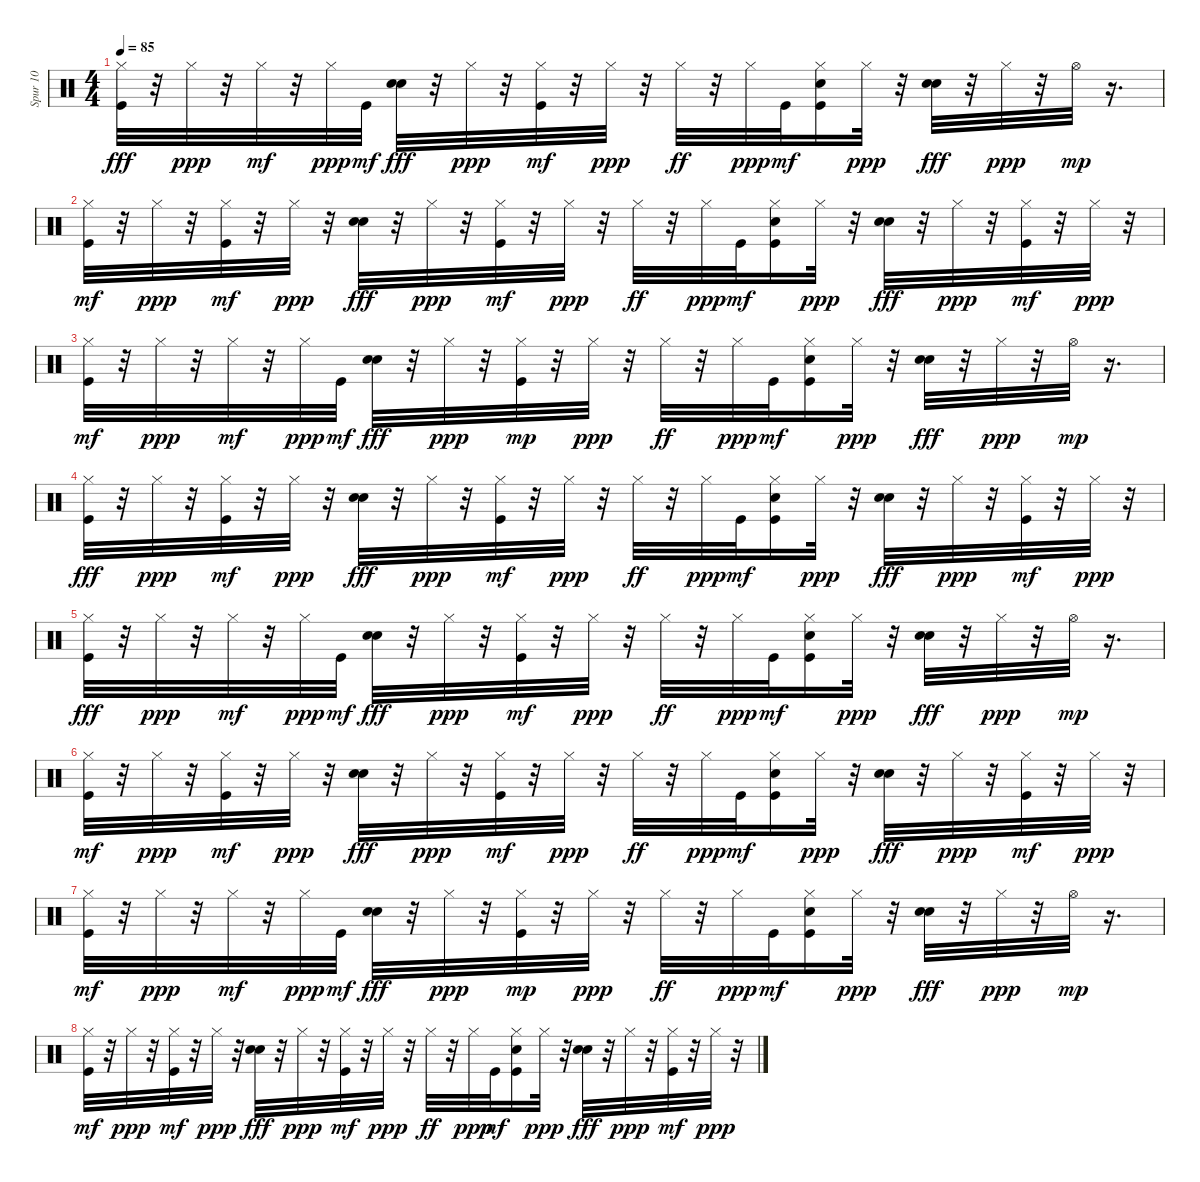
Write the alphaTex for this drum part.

\track ("Spur 10" "Spur 10") {instrument percussion}
\staff {score}
\articulation defaults
\ts (4 4)
\tempo 85
\clef neutral
\ks c
("Kick (hit)" "Hi-Hat (closed)").32{dy fff} r.32 "Hi-Hat (closed)".32{dy ppp} r.32 "Hi-Hat (closed)".32{dy mf} r.32 "Hi-Hat (closed)".32{dy ppp} "Kick (hit)".32{dy mf} ("Electric Snare (hit)" "Hand Clap (hit)").32{dy fff} r.32 "Hi-Hat (closed)".32{dy ppp} r.32 ("Hi-Hat (closed)" "Kick (hit)").32{dy mf} r.32 "Hi-Hat (closed)".32{dy ppp} r.32 "Hi-Hat (closed)".32{dy ff} r.32 "Hi-Hat (closed)".32{dy ppp} "Kick (hit)".32{dy mf} ("Kick (hit)" "Snare (hit)" "Hi-Hat (closed)").16 "Hi-Hat (closed)".32{dy ppp} r.32 ("Hand Clap (hit)" "Electric Snare (hit)").32{dy fff} r.32 "Hi-Hat (closed)".32{dy ppp} r.32 "Hi-Hat (open)".32{dy mp} r.16{d} |
("Hi-Hat (closed)" "Kick (hit)").32{dy mf} r.32 "Hi-Hat (closed)".32{dy ppp} r.32 ("Hi-Hat (closed)" "Kick (hit)").32{dy mf} r.32 "Hi-Hat (closed)".32{dy ppp} r.32 ("Electric Snare (hit)" "Hand Clap (hit)").32{dy fff} r.32 "Hi-Hat (closed)".32{dy ppp} r.32 ("Hi-Hat (closed)" "Kick (hit)").32{dy mf} r.32 "Hi-Hat (closed)".32{dy ppp} r.32 "Hi-Hat (closed)".32{dy ff} r.32 "Hi-Hat (closed)".32{dy ppp} "Kick (hit)".32{dy mf} ("Kick (hit)" "Hi-Hat (closed)" "Snare (hit)").16 "Hi-Hat (closed)".32{dy ppp} r.32 ("Hand Clap (hit)" "Electric Snare (hit)").32{dy fff} r.32 "Hi-Hat (closed)".32{dy ppp} r.32 ("Hi-Hat (closed)" "Kick (hit)").32{dy mf} r.32 "Hi-Hat (closed)".32{dy ppp} r.32 |
("Hi-Hat (closed)" "Kick (hit)").32{dy mf} r.32 "Hi-Hat (closed)".32{dy ppp} r.32 "Hi-Hat (closed)".32{dy mf} r.32 "Hi-Hat (closed)".32{dy ppp} "Kick (hit)".32{dy mf} ("Electric Snare (hit)" "Hand Clap (hit)").32{dy fff} r.32 "Hi-Hat (closed)".32{dy ppp} r.32 ("Kick (hit)" "Hi-Hat (closed)").32{dy mp} r.32 "Hi-Hat (closed)".32{dy ppp} r.32 "Hi-Hat (closed)".32{dy ff} r.32 "Hi-Hat (closed)".32{dy ppp} "Kick (hit)".32{dy mf} ("Kick (hit)" "Snare (hit)" "Hi-Hat (closed)").16 "Hi-Hat (closed)".32{dy ppp} r.32 ("Hand Clap (hit)" "Electric Snare (hit)").32{dy fff} r.32 "Hi-Hat (closed)".32{dy ppp} r.32 "Hi-Hat (open)".32{dy mp} r.16{d} |
("Kick (hit)" "Hi-Hat (closed)").32{dy fff} r.32 "Hi-Hat (closed)".32{dy ppp} r.32 ("Hi-Hat (closed)" "Kick (hit)").32{dy mf} r.32 "Hi-Hat (closed)".32{dy ppp} r.32 ("Electric Snare (hit)" "Hand Clap (hit)").32{dy fff} r.32 "Hi-Hat (closed)".32{dy ppp} r.32 ("Kick (hit)" "Hi-Hat (closed)").32{dy mf} r.32 "Hi-Hat (closed)".32{dy ppp} r.32 "Hi-Hat (closed)".32{dy ff} r.32 "Hi-Hat (closed)".32{dy ppp} "Kick (hit)".32{dy mf} ("Kick (hit)" "Hi-Hat (closed)" "Snare (hit)").16 "Hi-Hat (closed)".32{dy ppp} r.32 ("Hand Clap (hit)" "Electric Snare (hit)").32{dy fff} r.32 "Hi-Hat (closed)".32{dy ppp} r.32 ("Hi-Hat (closed)" "Kick (hit)").32{dy mf} r.32 "Hi-Hat (closed)".32{dy ppp} r.32 |
("Kick (hit)" "Hi-Hat (closed)").32{dy fff} r.32 "Hi-Hat (closed)".32{dy ppp} r.32 "Hi-Hat (closed)".32{dy mf} r.32 "Hi-Hat (closed)".32{dy ppp} "Kick (hit)".32{dy mf} ("Electric Snare (hit)" "Hand Clap (hit)").32{dy fff} r.32 "Hi-Hat (closed)".32{dy ppp} r.32 ("Hi-Hat (closed)" "Kick (hit)").32{dy mf} r.32 "Hi-Hat (closed)".32{dy ppp} r.32 "Hi-Hat (closed)".32{dy ff} r.32 "Hi-Hat (closed)".32{dy ppp} "Kick (hit)".32{dy mf} ("Hi-Hat (closed)" "Kick (hit)" "Snare (hit)").16 "Hi-Hat (closed)".32{dy ppp} r.32 ("Hand Clap (hit)" "Electric Snare (hit)").32{dy fff} r.32 "Hi-Hat (closed)".32{dy ppp} r.32 "Hi-Hat (open)".32{dy mp} r.16{d} |
("Hi-Hat (closed)" "Kick (hit)").32{dy mf} r.32 "Hi-Hat (closed)".32{dy ppp} r.32 ("Kick (hit)" "Hi-Hat (closed)").32{dy mf} r.32 "Hi-Hat (closed)".32{dy ppp} r.32 ("Electric Snare (hit)" "Hand Clap (hit)").32{dy fff} r.32 "Hi-Hat (closed)".32{dy ppp} r.32 ("Hi-Hat (closed)" "Kick (hit)").32{dy mf} r.32 "Hi-Hat (closed)".32{dy ppp} r.32 "Hi-Hat (closed)".32{dy ff} r.32 "Hi-Hat (closed)".32{dy ppp} "Kick (hit)".32{dy mf} ("Kick (hit)" "Hi-Hat (closed)" "Snare (hit)").16 "Hi-Hat (closed)".32{dy ppp} r.32 ("Electric Snare (hit)" "Hand Clap (hit)").32{dy fff} r.32 "Hi-Hat (closed)".32{dy ppp} r.32 ("Hi-Hat (closed)" "Kick (hit)").32{dy mf} r.32 "Hi-Hat (closed)".32{dy ppp} r.32 |
("Hi-Hat (closed)" "Kick (hit)").32{dy mf} r.32 "Hi-Hat (closed)".32{dy ppp} r.32 "Hi-Hat (closed)".32{dy mf} r.32 "Hi-Hat (closed)".32{dy ppp} "Kick (hit)".32{dy mf} ("Electric Snare (hit)" "Hand Clap (hit)").32{dy fff} r.32 "Hi-Hat (closed)".32{dy ppp} r.32 ("Kick (hit)" "Hi-Hat (closed)").32{dy mp} r.32 "Hi-Hat (closed)".32{dy ppp} r.32 "Hi-Hat (closed)".32{dy ff} r.32 "Hi-Hat (closed)".32{dy ppp} "Kick (hit)".32{dy mf} ("Kick (hit)" "Snare (hit)" "Hi-Hat (closed)").16 "Hi-Hat (closed)".32{dy ppp} r.32 ("Hand Clap (hit)" "Electric Snare (hit)").32{dy fff} r.32 "Hi-Hat (closed)".32{dy ppp} r.32 "Hi-Hat (open)".32{dy mp} r.16{d} |
("Hi-Hat (closed)" "Kick (hit)").32{dy mf} r.32 "Hi-Hat (closed)".32{dy ppp} r.32 ("Kick (hit)" "Hi-Hat (closed)").32{dy mf} r.32 "Hi-Hat (closed)".32{dy ppp} r.32 ("Electric Snare (hit)" "Hand Clap (hit)").32{dy fff} r.32 "Hi-Hat (closed)".32{dy ppp} r.32 ("Kick (hit)" "Hi-Hat (closed)").32{dy mf} r.32 "Hi-Hat (closed)".32{dy ppp} r.32 "Hi-Hat (closed)".32{dy ff} r.32 "Hi-Hat (closed)".32{dy ppp} "Kick (hit)".32{dy mf} ("Kick (hit)" "Hi-Hat (closed)" "Snare (hit)").16 "Hi-Hat (closed)".32{dy ppp} r.32 ("Electric Snare (hit)" "Hand Clap (hit)").32{dy fff} r.32 "Hi-Hat (closed)".32{dy ppp} r.32 ("Hi-Hat (closed)" "Kick (hit)").32{dy mf} r.32 "Hi-Hat (closed)".32{dy ppp} r.32
